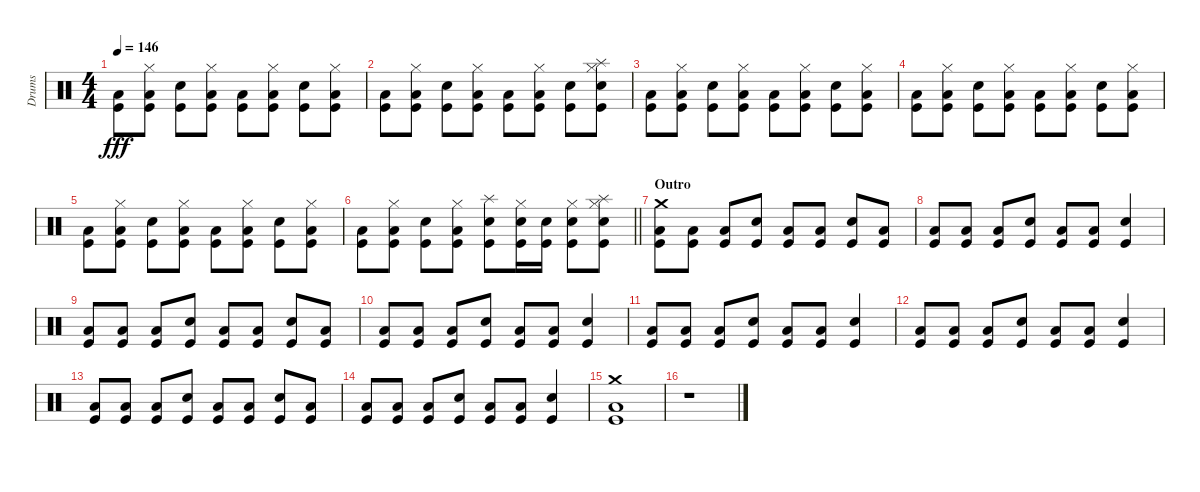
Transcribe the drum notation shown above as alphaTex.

\track ("Drums" "Drums") {instrument percussion}
\staff {score}
\articulation defaults
\ts (4 4)
\tempo 146
\clef neutral
\ks c
("Low Floor Tom (hit)" "Kick (hit)").8{dy fff} ("Hi-Hat (closed)" "Low Floor Tom (hit)" "Kick (hit)").8 ("Electric Snare (hit)" "Kick (hit)").8 ("Hi-Hat (closed)" "Low Floor Tom (hit)" "Kick (hit)").8 ("Low Floor Tom (hit)" "Kick (hit)").8 ("Hi-Hat (closed)" "Low Floor Tom (hit)" "Kick (hit)").8 ("Electric Snare (hit)" "Kick (hit)").8 ("Hi-Hat (closed)" "Low Floor Tom (hit)" "Kick (hit)").8 |
("Low Floor Tom (hit)" "Kick (hit)").8 ("Hi-Hat (closed)" "Low Floor Tom (hit)" "Kick (hit)").8 ("Electric Snare (hit)" "Kick (hit)").8 ("Hi-Hat (closed)" "Low Floor Tom (hit)" "Kick (hit)").8 ("Low Floor Tom (hit)" "Kick (hit)").8 ("Hi-Hat (closed)" "Low Floor Tom (hit)" "Kick (hit)").8 ("Electric Snare (hit)" "Kick (hit)").8 ("Splash (hit)" "Hi-Hat (closed)" "Electric Snare (hit)" "Kick (hit)").8 |
("Low Floor Tom (hit)" "Kick (hit)").8 ("Hi-Hat (closed)" "Low Floor Tom (hit)" "Kick (hit)").8 ("Electric Snare (hit)" "Kick (hit)").8 ("Hi-Hat (closed)" "Low Floor Tom (hit)" "Kick (hit)").8 ("Low Floor Tom (hit)" "Kick (hit)").8 ("Hi-Hat (closed)" "Low Floor Tom (hit)" "Kick (hit)").8 ("Electric Snare (hit)" "Kick (hit)").8 ("Hi-Hat (closed)" "Low Floor Tom (hit)" "Kick (hit)").8 |
("Low Floor Tom (hit)" "Kick (hit)").8 ("Hi-Hat (closed)" "Low Floor Tom (hit)" "Kick (hit)").8 ("Electric Snare (hit)" "Kick (hit)").8 ("Hi-Hat (closed)" "Low Floor Tom (hit)" "Kick (hit)").8 ("Low Floor Tom (hit)" "Kick (hit)").8 ("Hi-Hat (closed)" "Low Floor Tom (hit)" "Kick (hit)").8 ("Electric Snare (hit)" "Kick (hit)").8 ("Hi-Hat (closed)" "Low Floor Tom (hit)" "Kick (hit)").8 |
("Low Floor Tom (hit)" "Kick (hit)").8 ("Hi-Hat (closed)" "Low Floor Tom (hit)" "Kick (hit)").8 ("Electric Snare (hit)" "Kick (hit)").8 ("Hi-Hat (closed)" "Low Floor Tom (hit)" "Kick (hit)").8 ("Low Floor Tom (hit)" "Kick (hit)").8 ("Hi-Hat (closed)" "Low Floor Tom (hit)" "Kick (hit)").8 ("Electric Snare (hit)" "Kick (hit)").8 ("Hi-Hat (closed)" "Low Floor Tom (hit)" "Kick (hit)").8 |
\barLineRight lightlight
("Low Floor Tom (hit)" "Kick (hit)").8 ("Hi-Hat (closed)" "Low Floor Tom (hit)" "Kick (hit)").8 ("Electric Snare (hit)" "Kick (hit)").8 ("Hi-Hat (closed)" "Low Floor Tom (hit)" "Kick (hit)").8 ("Splash (hit)" "Electric Snare (hit)" "Kick (hit)").8 ("Hi-Hat (closed)" "Electric Snare (hit)" "Kick (hit)").16 ("Electric Snare (hit)" "Kick (hit)").16 ("Hi-Hat (closed)" "Electric Snare (hit)" "Kick (hit)").8 ("Splash (hit)" "Hi-Hat (closed)" "Electric Snare (hit)" "Kick (hit)").8 |
\section ("" "Outro")
("Crash medium (hit)" "Low Floor Tom (hit)" "Kick (hit)").8 ("Low Floor Tom (hit)" "Kick (hit)").8 ("Low Floor Tom (hit)" "Kick (hit)").8 ("Electric Snare (hit)" "Kick (hit)").8 ("Low Floor Tom (hit)" "Kick (hit)").8 ("Low Floor Tom (hit)" "Kick (hit)").8 ("Electric Snare (hit)" "Kick (hit)").8 ("Low Floor Tom (hit)" "Kick (hit)").8 |
("Low Floor Tom (hit)" "Kick (hit)").8 ("Low Floor Tom (hit)" "Kick (hit)").8 ("Low Floor Tom (hit)" "Kick (hit)").8 ("Electric Snare (hit)" "Kick (hit)").8 ("Low Floor Tom (hit)" "Kick (hit)").8 ("Low Floor Tom (hit)" "Kick (hit)").8 ("Electric Snare (hit)" "Kick (hit)").4 |
("Low Floor Tom (hit)" "Kick (hit)").8 ("Low Floor Tom (hit)" "Kick (hit)").8 ("Low Floor Tom (hit)" "Kick (hit)").8 ("Electric Snare (hit)" "Kick (hit)").8 ("Low Floor Tom (hit)" "Kick (hit)").8 ("Low Floor Tom (hit)" "Kick (hit)").8 ("Electric Snare (hit)" "Kick (hit)").8 ("Low Floor Tom (hit)" "Kick (hit)").8 |
("Low Floor Tom (hit)" "Kick (hit)").8 ("Low Floor Tom (hit)" "Kick (hit)").8 ("Low Floor Tom (hit)" "Kick (hit)").8 ("Electric Snare (hit)" "Kick (hit)").8 ("Low Floor Tom (hit)" "Kick (hit)").8 ("Low Floor Tom (hit)" "Kick (hit)").8 ("Electric Snare (hit)" "Kick (hit)").4 |
("Low Floor Tom (hit)" "Kick (hit)").8 ("Low Floor Tom (hit)" "Kick (hit)").8 ("Low Floor Tom (hit)" "Kick (hit)").8 ("Electric Snare (hit)" "Kick (hit)").8 ("Low Floor Tom (hit)" "Kick (hit)").8 ("Low Floor Tom (hit)" "Kick (hit)").8 ("Electric Snare (hit)" "Kick (hit)").4 |
("Low Floor Tom (hit)" "Kick (hit)").8 ("Low Floor Tom (hit)" "Kick (hit)").8 ("Low Floor Tom (hit)" "Kick (hit)").8 ("Electric Snare (hit)" "Kick (hit)").8 ("Low Floor Tom (hit)" "Kick (hit)").8 ("Low Floor Tom (hit)" "Kick (hit)").8 ("Electric Snare (hit)" "Kick (hit)").4 |
("Low Floor Tom (hit)" "Kick (hit)").8 ("Low Floor Tom (hit)" "Kick (hit)").8 ("Low Floor Tom (hit)" "Kick (hit)").8 ("Electric Snare (hit)" "Kick (hit)").8 ("Low Floor Tom (hit)" "Kick (hit)").8 ("Low Floor Tom (hit)" "Kick (hit)").8 ("Electric Snare (hit)" "Kick (hit)").8 ("Low Floor Tom (hit)" "Kick (hit)").8 |
("Low Floor Tom (hit)" "Kick (hit)").8 ("Low Floor Tom (hit)" "Kick (hit)").8 ("Low Floor Tom (hit)" "Kick (hit)").8 ("Electric Snare (hit)" "Kick (hit)").8 ("Low Floor Tom (hit)" "Kick (hit)").8 ("Low Floor Tom (hit)" "Kick (hit)").8 ("Electric Snare (hit)" "Kick (hit)").4 |
("Crash medium (hit)" "Low Floor Tom (hit)" "Kick (hit)").1 |
r.1
